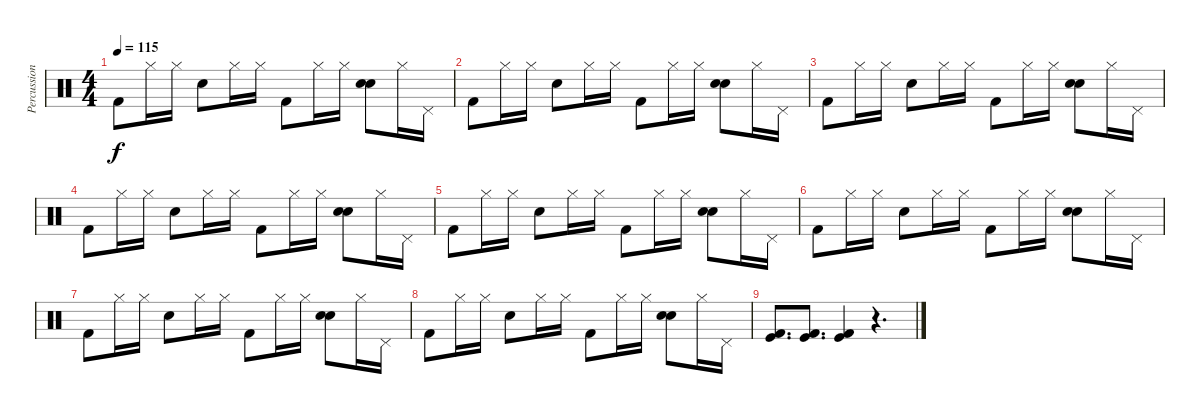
\track ("Percussions" "Percussion") {instrument percussion}
\staff {score}
\articulation defaults
\ts (4 4)
\tempo 115
\clef neutral
\ks c "Kick (hit) 2".8{dy f} "Hi-Hat (closed)".16 "Hi-Hat (closed)".16 "Electric Snare (hit)".8 "Hi-Hat (closed)".16 "Hi-Hat (closed)".16 "Kick (hit) 2".8 "Hi-Hat (closed)".16 "Hi-Hat (closed)".16
("Hand Clap (hit)" "Electric Snare (hit)").8 "Hi-Hat (closed)".16 "Pedal Hi-Hat (hit)".16 |
"Kick (hit) 2".8 "Hi-Hat (closed)".16 "Hi-Hat (closed)".16 "Electric Snare (hit)".8 "Hi-Hat (closed)".16 "Hi-Hat (closed)".16 "Kick (hit) 2".8 "Hi-Hat (closed)".16 "Hi-Hat (closed)".16 ("Hand Clap (hit)" "Electric Snare (hit)").8 "Hi-Hat (closed)".16 "Pedal Hi-Hat (hit)".16 |
"Kick (hit) 2".8 "Hi-Hat (closed)".16 "Hi-Hat (closed)".16 "Electric Snare (hit)".8 "Hi-Hat (closed)".16 "Hi-Hat (closed)".16 "Kick (hit) 2".8 "Hi-Hat (closed)".16 "Hi-Hat (closed)".16 ("Hand Clap (hit)" "Electric Snare (hit)").8 "Hi-Hat (closed)".16 "Pedal Hi-Hat (hit)".16 |
"Kick (hit) 2".8 "Hi-Hat (closed)".16 "Hi-Hat (closed)".16 "Electric Snare (hit)".8 "Hi-Hat (closed)".16 "Hi-Hat (closed)".16 "Kick (hit) 2".8 "Hi-Hat (closed)".16 "Hi-Hat (closed)".16 ("Hand Clap (hit)" "Electric Snare (hit)").8 "Hi-Hat (closed)".16 "Pedal Hi-Hat (hit)".16 |
"Kick (hit) 2".8 "Hi-Hat (closed)".16 "Hi-Hat (closed)".16 "Electric Snare (hit)".8 "Hi-Hat (closed)".16 "Hi-Hat (closed)".16 "Kick (hit) 2".8 "Hi-Hat (closed)".16 "Hi-Hat (closed)".16 ("Hand Clap (hit)" "Electric Snare (hit)").8 "Hi-Hat (closed)".16 "Pedal Hi-Hat (hit)".16 |
"Kick (hit) 2".8 "Hi-Hat (closed)".16 "Hi-Hat (closed)".16 "Electric Snare (hit)".8 "Hi-Hat (closed)".16 "Hi-Hat (closed)".16 "Kick (hit) 2".8 "Hi-Hat (closed)".16 "Hi-Hat (closed)".16 ("Hand Clap (hit)" "Electric Snare (hit)").8 "Hi-Hat (closed)".16 "Pedal Hi-Hat (hit)".16 |
"Kick (hit) 2".8 "Hi-Hat (closed)".16 "Hi-Hat (closed)".16 "Electric Snare (hit)".8 "Hi-Hat (closed)".16 "Hi-Hat (closed)".16 "Kick (hit) 2".8 "Hi-Hat (closed)".16 "Hi-Hat (closed)".16 ("Hand Clap (hit)" "Electric Snare (hit)").8 "Hi-Hat (closed)".16 "Pedal Hi-Hat (hit)".16 |
"Kick (hit) 2".8 "Hi-Hat (closed)".16 "Hi-Hat (closed)".16 "Electric Snare (hit)".8 "Hi-Hat (closed)".16 "Hi-Hat (closed)".16 "Kick (hit) 2".8 "Hi-Hat (closed)".16 "Hi-Hat (closed)".16 ("Hand Clap (hit)" "Electric Snare (hit)").8 "Hi-Hat (closed)".16 "Pedal Hi-Hat (hit)".16 |
("Kick (hit) 2" "Kick (hit)").8{d} ("Kick (hit) 2" "Kick (hit)").8{d} ("Kick (hit) 2" "Kick (hit)").4 r.4{d}
